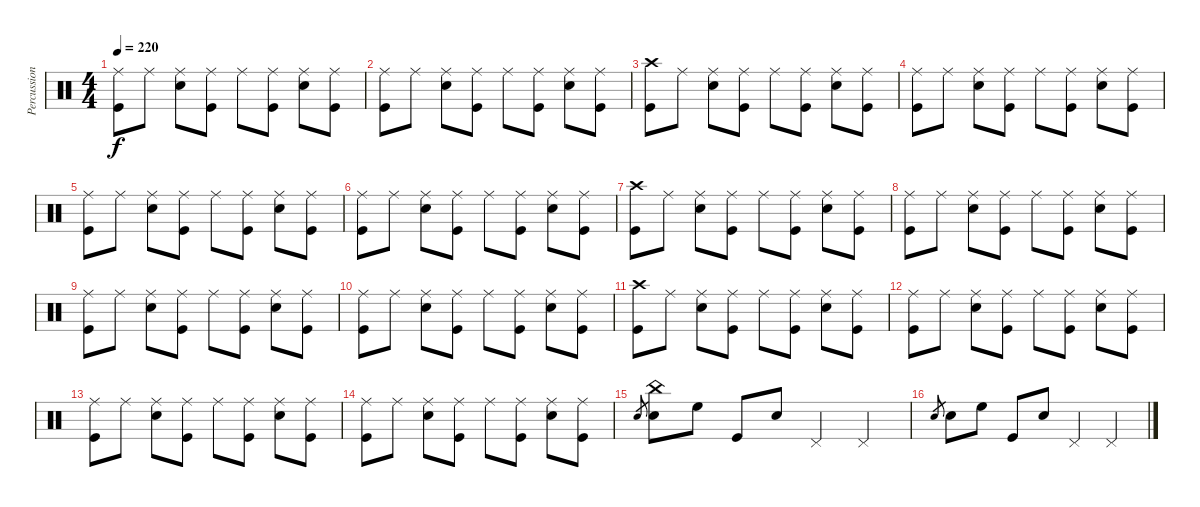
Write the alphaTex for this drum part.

\track ("Percussions" "Percussion") {instrument percussion}
\staff {score}
\articulation defaults
\ts (4 4)
\tempo 220
\clef neutral
\ks c
("Ride (middle)" "Kick (hit)").8{dy f} "Ride (middle)".8 ("Ride (middle)" "Electric Snare (hit)").8 ("Ride (middle)" "Kick (hit)").8 "Ride (middle)".8 ("Ride (middle)" "Kick (hit)").8 ("Ride (middle)" "Electric Snare (hit)").8 ("Ride (middle)" "Kick (hit)").8 |
("Ride (middle)" "Kick (hit)").8 "Ride (middle)".8 ("Ride (middle)" "Electric Snare (hit)").8 ("Ride (middle)" "Kick (hit)").8 "Ride (middle)".8 ("Ride (middle)" "Kick (hit)").8 ("Ride (middle)" "Electric Snare (hit)").8 ("Ride (middle)" "Kick (hit)").8 |
("Crash high (hit)" "Kick (hit)").8 "Ride (middle)".8 ("Ride (middle)" "Electric Snare (hit)").8 ("Ride (middle)" "Kick (hit)").8 "Ride (middle)".8 ("Ride (middle)" "Kick (hit)").8 ("Ride (middle)" "Electric Snare (hit)").8 ("Ride (middle)" "Kick (hit)").8 |
("Ride (middle)" "Kick (hit)").8 "Ride (middle)".8 ("Ride (middle)" "Electric Snare (hit)").8 ("Ride (middle)" "Kick (hit)").8 "Ride (middle)".8 ("Ride (middle)" "Kick (hit)").8 ("Ride (middle)" "Electric Snare (hit)").8 ("Ride (middle)" "Kick (hit)").8 |
("Ride (middle)" "Kick (hit)").8 "Ride (middle)".8 ("Ride (middle)" "Electric Snare (hit)").8 ("Ride (middle)" "Kick (hit)").8 "Ride (middle)".8 ("Ride (middle)" "Kick (hit)").8 ("Ride (middle)" "Electric Snare (hit)").8 ("Ride (middle)" "Kick (hit)").8 |
("Ride (middle)" "Kick (hit)").8 "Ride (middle)".8 ("Ride (middle)" "Electric Snare (hit)").8 ("Ride (middle)" "Kick (hit)").8 "Ride (middle)".8 ("Ride (middle)" "Kick (hit)").8 ("Ride (middle)" "Electric Snare (hit)").8 ("Ride (middle)" "Kick (hit)").8 |
("Crash high (hit)" "Kick (hit)").8 "Ride (middle)".8 ("Ride (middle)" "Electric Snare (hit)").8 ("Ride (middle)" "Kick (hit)").8 "Ride (middle)".8 ("Ride (middle)" "Kick (hit)").8 ("Ride (middle)" "Electric Snare (hit)").8 ("Ride (middle)" "Kick (hit)").8 |
("Ride (middle)" "Kick (hit)").8 "Ride (middle)".8 ("Ride (middle)" "Electric Snare (hit)").8 ("Ride (middle)" "Kick (hit)").8 "Ride (middle)".8 ("Ride (middle)" "Kick (hit)").8 ("Ride (middle)" "Electric Snare (hit)").8 ("Ride (middle)" "Kick (hit)").8 |
("Ride (middle)" "Kick (hit)").8 "Ride (middle)".8 ("Ride (middle)" "Electric Snare (hit)").8 ("Ride (middle)" "Kick (hit)").8 "Ride (middle)".8 ("Ride (middle)" "Kick (hit)").8 ("Ride (middle)" "Electric Snare (hit)").8 ("Ride (middle)" "Kick (hit)").8 |
("Ride (middle)" "Kick (hit)").8 "Ride (middle)".8 ("Ride (middle)" "Electric Snare (hit)").8 ("Ride (middle)" "Kick (hit)").8 "Ride (middle)".8 ("Ride (middle)" "Kick (hit)").8 ("Ride (middle)" "Electric Snare (hit)").8 ("Ride (middle)" "Kick (hit)").8 |
("Crash high (hit)" "Kick (hit)").8 "Ride (middle)".8 ("Ride (middle)" "Electric Snare (hit)").8 ("Ride (middle)" "Kick (hit)").8 "Ride (middle)".8 ("Ride (middle)" "Kick (hit)").8 ("Ride (middle)" "Electric Snare (hit)").8 ("Ride (middle)" "Kick (hit)").8 |
("Ride (middle)" "Kick (hit)").8 "Ride (middle)".8 ("Ride (middle)" "Electric Snare (hit)").8 ("Ride (middle)" "Kick (hit)").8 "Ride (middle)".8 ("Ride (middle)" "Kick (hit)").8 ("Ride (middle)" "Electric Snare (hit)").8 ("Ride (middle)" "Kick (hit)").8 |
("Ride (middle)" "Kick (hit)").8 "Ride (middle)".8 ("Ride (middle)" "Electric Snare (hit)").8 ("Ride (middle)" "Kick (hit)").8 "Ride (middle)".8 ("Ride (middle)" "Kick (hit)").8 ("Ride (middle)" "Electric Snare (hit)").8 ("Ride (middle)" "Kick (hit)").8 |
("Ride (middle)" "Kick (hit)").8 "Ride (middle)".8 ("Ride (middle)" "Electric Snare (hit)").8 ("Ride (middle)" "Kick (hit)").8 "Ride (middle)".8 ("Ride (middle)" "Kick (hit)").8 ("Ride (middle)" "Electric Snare (hit)").8 ("Ride (middle)" "Kick (hit)").8 |
"Electric Snare (hit)".8{gr} ("China (hit)" "Electric Snare (hit)").8 "High Floor Tom (hit)".8 "Kick (hit)".8 "Electric Snare (hit)".8 "Pedal Hi-Hat (hit)".4 "Pedal Hi-Hat (hit)".4 |
"Electric Snare (hit)".8{gr} "Electric Snare (hit)".8 "High Floor Tom (hit)".8 "Kick (hit)".8 "Electric Snare (hit)".8 "Pedal Hi-Hat (hit)".4 "Pedal Hi-Hat (hit)".4
